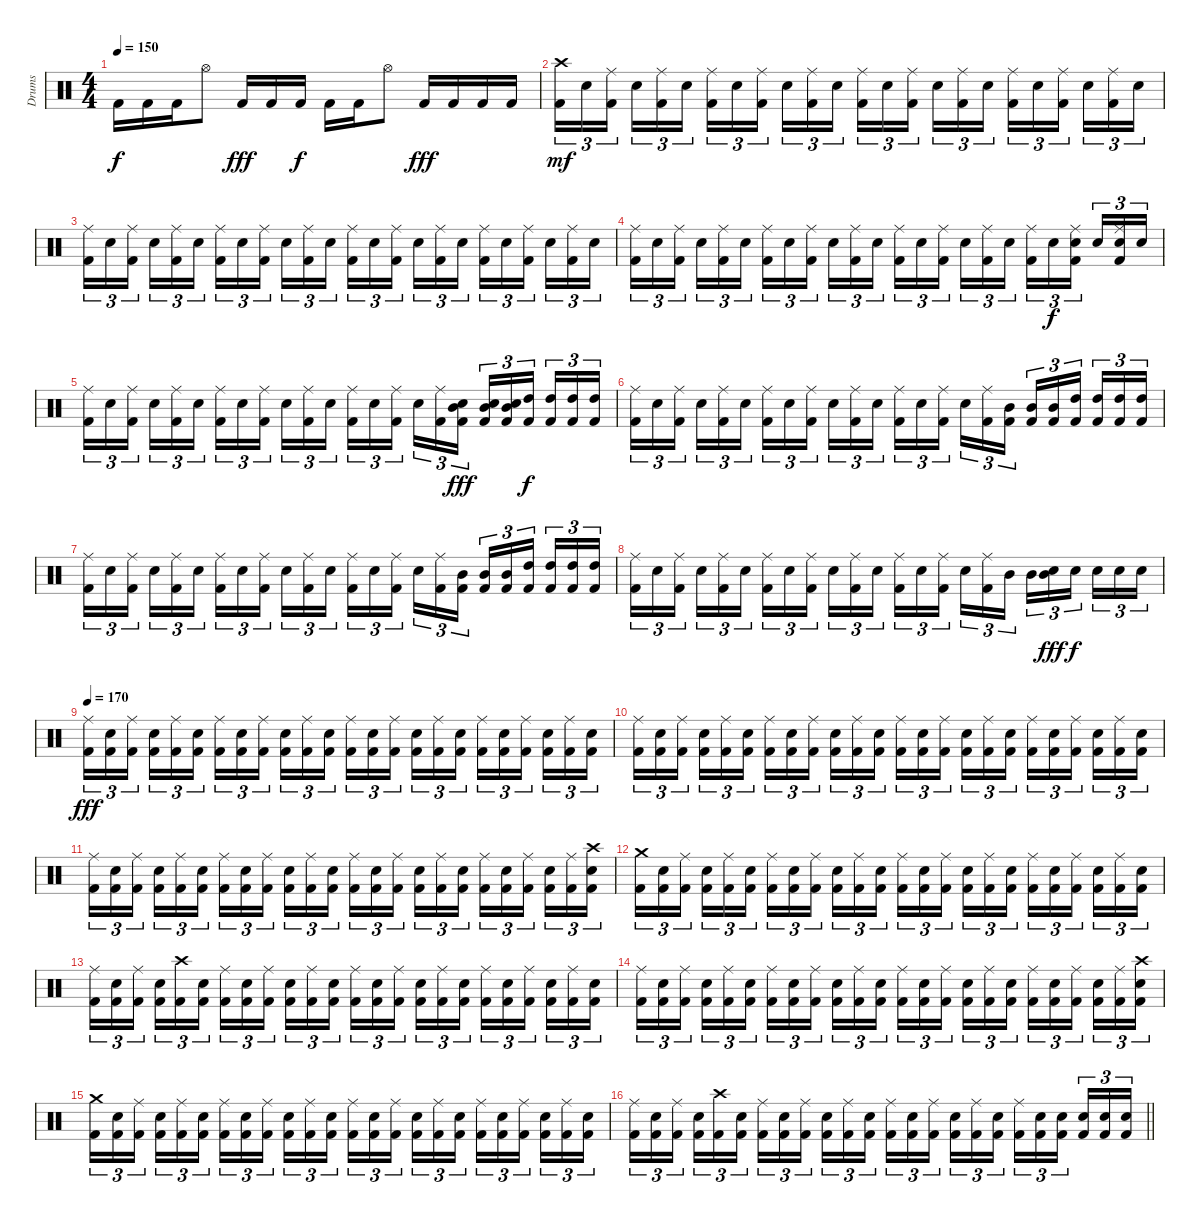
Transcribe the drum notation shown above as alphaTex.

\track ("Drums" "Drums") {instrument percussion}
\staff {score}
\articulation defaults
\ts (4 4)
\tempo 150
\clef neutral
\ks c "Kick (hit) 2".16{dy f} "Kick (hit) 2".16 "Kick (hit) 2".16 "Hi-Hat (open)".8 "Kick (hit) 2".16{dy fff} "Kick (hit) 2".16 "Kick (hit) 2".16{dy f} "Kick (hit) 2".16 "Kick (hit) 2".16 "Hi-Hat (open)".8 "Kick (hit) 2".16{dy fff} "Kick (hit) 2".16 "Kick (hit) 2".16 "Kick (hit) 2".16
|
("Crash high (hit)" "Kick (hit) 2").16{tu (3 2) dy mf} "Snare (hit) 2".16{tu (3 2)} ("Ride (middle)" "Kick (hit) 2").16{tu (3 2) beam splitsecondary} "Snare (hit) 2".16{tu (3 2)} ("Ride (middle)" "Kick (hit) 2").16{tu (3 2)} "Snare (hit) 2".16{tu (3 2)} ("Ride (middle)" "Kick (hit) 2").16{tu (3 2)} "Snare (hit) 2".16{tu (3 2)} ("Ride (middle)" "Kick (hit) 2").16{tu (3 2) beam splitsecondary} "Snare (hit) 2".16{tu (3 2)} ("Ride (middle)" "Kick (hit) 2").16{tu (3 2)} "Snare (hit) 2".16{tu (3 2)} ("Ride (middle)" "Kick (hit) 2").16{tu (3 2)} "Snare (hit) 2".16{tu (3 2)} ("Ride (middle)" "Kick (hit) 2").16{tu (3 2) beam splitsecondary} "Snare (hit) 2".16{tu (3 2)} ("Ride (middle)" "Kick (hit) 2").16{tu (3 2)} "Snare (hit) 2".16{tu (3 2)} ("Ride (middle)" "Kick (hit) 2").16{tu (3 2)} "Snare (hit) 2".16{tu (3 2)} ("Ride (middle)" "Kick (hit) 2").16{tu (3 2) beam splitsecondary} "Snare (hit) 2".16{tu (3 2)} ("Ride (middle)" "Kick (hit) 2").16{tu (3 2)} "Snare (hit) 2".16{tu (3 2)} |
("Ride (middle)" "Kick (hit) 2").16{tu (3 2)} "Snare (hit) 2".16{tu (3 2)} ("Ride (middle)" "Kick (hit) 2").16{tu (3 2) beam splitsecondary} "Snare (hit) 2".16{tu (3 2)} ("Ride (middle)" "Kick (hit) 2").16{tu (3 2)} "Snare (hit) 2".16{tu (3 2)} ("Ride (middle)" "Kick (hit) 2").16{tu (3 2)} "Snare (hit) 2".16{tu (3 2)} ("Ride (middle)" "Kick (hit) 2").16{tu (3 2) beam splitsecondary} "Snare (hit) 2".16{tu (3 2)} ("Ride (middle)" "Kick (hit) 2").16{tu (3 2)} "Snare (hit) 2".16{tu (3 2)} ("Ride (middle)" "Kick (hit) 2").16{tu (3 2)} "Snare (hit) 2".16{tu (3 2)} ("Ride (middle)" "Kick (hit) 2").16{tu (3 2) beam splitsecondary} "Snare (hit) 2".16{tu (3 2)} ("Ride (middle)" "Kick (hit) 2").16{tu (3 2)} "Snare (hit) 2".16{tu (3 2)} ("Ride (middle)" "Kick (hit) 2").16{tu (3 2)} "Snare (hit) 2".16{tu (3 2)} ("Ride (middle)" "Kick (hit) 2").16{tu (3 2) beam splitsecondary} "Snare (hit) 2".16{tu (3 2)} ("Ride (middle)" "Kick (hit) 2").16{tu (3 2)} "Snare (hit) 2".16{tu (3 2)} |
("Ride (middle)" "Kick (hit) 2").16{tu (3 2)} "Snare (hit) 2".16{tu (3 2)} ("Ride (middle)" "Kick (hit) 2").16{tu (3 2) beam splitsecondary} "Snare (hit) 2".16{tu (3 2)} ("Ride (middle)" "Kick (hit) 2").16{tu (3 2)} "Snare (hit) 2".16{tu (3 2)} ("Ride (middle)" "Kick (hit) 2").16{tu (3 2)} "Snare (hit) 2".16{tu (3 2)} ("Ride (middle)" "Kick (hit) 2").16{tu (3 2) beam splitsecondary} "Snare (hit) 2".16{tu (3 2)} ("Ride (middle)" "Kick (hit) 2").16{tu (3 2)} "Snare (hit) 2".16{tu (3 2)} ("Ride (middle)" "Kick (hit) 2").16{tu (3 2)} "Snare (hit) 2".16{tu (3 2)} ("Ride (middle)" "Kick (hit) 2").16{tu (3 2) beam splitsecondary} "Snare (hit) 2".16{tu (3 2)} ("Ride (middle)" "Kick (hit) 2").16{tu (3 2)} "Snare (hit) 2".16{tu (3 2)} ("Ride (middle)" "Kick (hit) 2").16{tu (3 2)} "Electric Snare (hit)".16{tu (3 2) dy f} ("Ride (middle)" "Electric Snare (hit)" "Kick (hit) 2").16{tu (3 2) beam splitsecondary} "Electric Snare (hit)".16{tu (3 2)} ("Ride (middle)" "Electric Snare (hit)" "Kick (hit) 2").16{tu (3 2)} "Electric Snare (hit)".16{tu (3 2)} |
("Ride (middle)" "Kick (hit) 2").16{tu (3 2)} "Electric Snare (hit)".16{tu (3 2)} ("Ride (middle)" "Kick (hit) 2").16{tu (3 2) beam splitsecondary} "Electric Snare (hit)".16{tu (3 2)} ("Ride (middle)" "Kick (hit) 2").16{tu (3 2)} "Electric Snare (hit)".16{tu (3 2)} ("Ride (middle)" "Kick (hit) 2").16{tu (3 2)} "Electric Snare (hit)".16{tu (3 2)} ("Ride (middle)" "Kick (hit) 2").16{tu (3 2) beam splitsecondary} "Electric Snare (hit)".16{tu (3 2)} ("Ride (middle)" "Kick (hit) 2").16{tu (3 2)} "Electric Snare (hit)".16{tu (3 2)} ("Ride (middle)" "Kick (hit) 2").16{tu (3 2)} "Electric Snare (hit)".16{tu (3 2)} ("Ride (middle)" "Kick (hit) 2").16{tu (3 2) beam splitsecondary} "Electric Snare (hit)".16{tu (3 2)} ("Ride (middle)" "Kick (hit) 2").16{tu (3 2)} ("Mid Tom (hit)" "Electric Snare (hit)" "Kick (hit) 2").16{tu (3 2) dy fff} ("Mid Tom (hit)" "Electric Snare (hit)" "Kick (hit) 2").16{tu (3 2)} ("Mid Tom (hit)" "Electric Snare (hit)" "Kick (hit) 2").16{tu (3 2)} ("High Tom (hit)" "Kick (hit) 2").16{tu (3 2) dy f beam splitsecondary} ("High Tom (hit)" "Kick (hit) 2").16{tu (3 2)} ("High Tom (hit)" "Kick (hit) 2").16{tu (3 2)} ("High Tom (hit)" "Kick (hit) 2").16{tu (3 2)} |
("Ride (middle)" "Kick (hit) 2").16{tu (3 2)} "Electric Snare (hit)".16{tu (3 2)} ("Ride (middle)" "Kick (hit) 2").16{tu (3 2) beam splitsecondary} "Electric Snare (hit)".16{tu (3 2)} ("Ride (middle)" "Kick (hit) 2").16{tu (3 2)} "Electric Snare (hit)".16{tu (3 2)} ("Ride (middle)" "Kick (hit) 2").16{tu (3 2)} "Electric Snare (hit)".16{tu (3 2)} ("Ride (middle)" "Kick (hit) 2").16{tu (3 2) beam splitsecondary} "Electric Snare (hit)".16{tu (3 2)} ("Ride (middle)" "Kick (hit) 2").16{tu (3 2)} "Electric Snare (hit)".16{tu (3 2)} ("Ride (middle)" "Kick (hit) 2").16{tu (3 2)} "Electric Snare (hit)".16{tu (3 2)} ("Ride (middle)" "Kick (hit) 2").16{tu (3 2) beam splitsecondary} "Electric Snare (hit)".16{tu (3 2)} ("Ride (middle)" "Kick (hit) 2").16{tu (3 2)} ("Mid Tom (hit)" "Kick (hit) 2").16{tu (3 2)} ("Mid Tom (hit)" "Kick (hit) 2").16{tu (3 2)} ("Mid Tom (hit)" "Kick (hit) 2").16{tu (3 2)} ("High Tom (hit)" "Kick (hit) 2").16{tu (3 2) beam splitsecondary} ("High Tom (hit)" "Kick (hit) 2").16{tu (3 2)} ("High Tom (hit)" "Kick (hit) 2").16{tu (3 2)} ("High Tom (hit)" "Kick (hit) 2").16{tu (3 2)} |
("Ride (middle)" "Kick (hit) 2").16{tu (3 2)} "Electric Snare (hit)".16{tu (3 2)} ("Ride (middle)" "Kick (hit) 2").16{tu (3 2) beam splitsecondary} "Electric Snare (hit)".16{tu (3 2)} ("Ride (middle)" "Kick (hit) 2").16{tu (3 2)} "Electric Snare (hit)".16{tu (3 2)} ("Ride (middle)" "Kick (hit) 2").16{tu (3 2)} "Electric Snare (hit)".16{tu (3 2)} ("Ride (middle)" "Kick (hit) 2").16{tu (3 2) beam splitsecondary} "Electric Snare (hit)".16{tu (3 2)} ("Ride (middle)" "Kick (hit) 2").16{tu (3 2)} "Electric Snare (hit)".16{tu (3 2)} ("Ride (middle)" "Kick (hit) 2").16{tu (3 2)} "Electric Snare (hit)".16{tu (3 2)} ("Ride (middle)" "Kick (hit) 2").16{tu (3 2) beam splitsecondary} "Electric Snare (hit)".16{tu (3 2)} ("Ride (middle)" "Kick (hit) 2").16{tu (3 2)} ("Mid Tom (hit)" "Kick (hit) 2").16{tu (3 2)} ("Mid Tom (hit)" "Kick (hit) 2").16{tu (3 2)} ("Mid Tom (hit)" "Kick (hit) 2").16{tu (3 2)} ("High Tom (hit)" "Kick (hit) 2").16{tu (3 2) beam splitsecondary} ("High Tom (hit)" "Kick (hit) 2").16{tu (3 2)} ("High Tom (hit)" "Kick (hit) 2").16{tu (3 2)} ("High Tom (hit)" "Kick (hit) 2").16{tu (3 2)} |
("Ride (middle)" "Kick (hit) 2").16{tu (3 2)} "Electric Snare (hit)".16{tu (3 2)} ("Ride (middle)" "Kick (hit) 2").16{tu (3 2) beam splitsecondary} "Electric Snare (hit)".16{tu (3 2)} ("Ride (middle)" "Kick (hit) 2").16{tu (3 2)} "Electric Snare (hit)".16{tu (3 2)} ("Ride (middle)" "Kick (hit) 2").16{tu (3 2)} "Electric Snare (hit)".16{tu (3 2)} ("Ride (middle)" "Kick (hit) 2").16{tu (3 2) beam splitsecondary} "Electric Snare (hit)".16{tu (3 2)} ("Ride (middle)" "Kick (hit) 2").16{tu (3 2)} "Electric Snare (hit)".16{tu (3 2)} ("Ride (middle)" "Kick (hit) 2").16{tu (3 2)} "Electric Snare (hit)".16{tu (3 2)} ("Ride (middle)" "Kick (hit) 2").16{tu (3 2) beam splitsecondary} "Electric Snare (hit)".16{tu (3 2)} ("Ride (middle)" "Kick (hit) 2").16{tu (3 2)} "Mid Tom (hit)".16{tu (3 2)} "Mid Tom (hit)".16{tu (3 2)} ("Mid Tom (hit)" "Snare (hit) 2").16{tu (3 2) dy fff} "Snare (hit) 2".16{tu (3 2) dy f beam splitsecondary} "Snare (hit) 2".16{tu (3 2)} "Snare (hit) 2".16{tu (3 2)} "Snare (hit) 2".16{tu (3 2)} |
\tempo 170
("Ride (middle)" "Kick (hit) 2").16{tu (3 2) dy fff} ("Snare (hit) 2" "Kick (hit) 2").16{tu (3 2)} ("Ride (middle)" "Kick (hit) 2").16{tu (3 2) beam splitsecondary} ("Snare (hit) 2" "Kick (hit) 2").16{tu (3 2)} ("Ride (middle)" "Kick (hit) 2").16{tu (3 2)} ("Snare (hit) 2" "Kick (hit) 2").16{tu (3 2)} ("Ride (middle)" "Kick (hit) 2").16{tu (3 2)} ("Snare (hit) 2" "Kick (hit) 2").16{tu (3 2)} ("Ride (middle)" "Kick (hit) 2").16{tu (3 2) beam splitsecondary} ("Snare (hit) 2" "Kick (hit) 2").16{tu (3 2)} ("Ride (middle)" "Kick (hit) 2").16{tu (3 2)} ("Snare (hit) 2" "Kick (hit) 2").16{tu (3 2)} ("Ride (middle)" "Kick (hit) 2").16{tu (3 2)} ("Snare (hit) 2" "Kick (hit) 2").16{tu (3 2)} ("Ride (middle)" "Kick (hit) 2").16{tu (3 2) beam splitsecondary} ("Snare (hit) 2" "Kick (hit) 2").16{tu (3 2)} ("Ride (middle)" "Kick (hit) 2").16{tu (3 2)} ("Snare (hit) 2" "Kick (hit) 2").16{tu (3 2)} ("Ride (middle)" "Kick (hit) 2").16{tu (3 2)} ("Snare (hit) 2" "Kick (hit) 2").16{tu (3 2)} ("Ride (middle)" "Kick (hit) 2").16{tu (3 2) beam splitsecondary} ("Snare (hit) 2" "Kick (hit) 2").16{tu (3 2)} ("Ride (middle)" "Kick (hit) 2").16{tu (3 2)} ("Snare (hit) 2" "Kick (hit) 2").16{tu (3 2)} |
("Ride (middle)" "Kick (hit) 2").16{tu (3 2)} ("Snare (hit) 2" "Kick (hit) 2").16{tu (3 2)} ("Ride (middle)" "Kick (hit) 2").16{tu (3 2) beam splitsecondary} ("Snare (hit) 2" "Kick (hit) 2").16{tu (3 2)} ("Ride (middle)" "Kick (hit) 2").16{tu (3 2)} ("Snare (hit) 2" "Kick (hit) 2").16{tu (3 2)} ("Ride (middle)" "Kick (hit) 2").16{tu (3 2)} ("Snare (hit) 2" "Kick (hit) 2").16{tu (3 2)} ("Ride (middle)" "Kick (hit) 2").16{tu (3 2) beam splitsecondary} ("Snare (hit) 2" "Kick (hit) 2").16{tu (3 2)} ("Ride (middle)" "Kick (hit) 2").16{tu (3 2)} ("Snare (hit) 2" "Kick (hit) 2").16{tu (3 2)} ("Ride (middle)" "Kick (hit) 2").16{tu (3 2)} ("Snare (hit) 2" "Kick (hit) 2").16{tu (3 2)} ("Ride (middle)" "Kick (hit) 2").16{tu (3 2) beam splitsecondary} ("Snare (hit) 2" "Kick (hit) 2").16{tu (3 2)} ("Ride (middle)" "Kick (hit) 2").16{tu (3 2)} ("Snare (hit) 2" "Kick (hit) 2").16{tu (3 2)} ("Ride (middle)" "Kick (hit) 2").16{tu (3 2)} ("Snare (hit) 2" "Kick (hit) 2").16{tu (3 2)} ("Ride (middle)" "Kick (hit) 2").16{tu (3 2) beam splitsecondary} ("Snare (hit) 2" "Kick (hit) 2").16{tu (3 2)} ("Ride (middle)" "Kick (hit) 2").16{tu (3 2)} ("Snare (hit) 2" "Kick (hit) 2").16{tu (3 2)} |
("Ride (middle)" "Kick (hit) 2").16{tu (3 2)} ("Snare (hit) 2" "Kick (hit) 2").16{tu (3 2)} ("Ride (middle)" "Kick (hit) 2").16{tu (3 2) beam splitsecondary} ("Snare (hit) 2" "Kick (hit) 2").16{tu (3 2)} ("Ride (middle)" "Kick (hit) 2").16{tu (3 2)} ("Snare (hit) 2" "Kick (hit) 2").16{tu (3 2)} ("Ride (middle)" "Kick (hit) 2").16{tu (3 2)} ("Snare (hit) 2" "Kick (hit) 2").16{tu (3 2)} ("Ride (middle)" "Kick (hit) 2").16{tu (3 2) beam splitsecondary} ("Snare (hit) 2" "Kick (hit) 2").16{tu (3 2)} ("Ride (middle)" "Kick (hit) 2").16{tu (3 2)} ("Snare (hit) 2" "Kick (hit) 2").16{tu (3 2)} ("Ride (middle)" "Kick (hit) 2").16{tu (3 2)} ("Snare (hit) 2" "Kick (hit) 2").16{tu (3 2)} ("Ride (middle)" "Kick (hit) 2").16{tu (3 2) beam splitsecondary} ("Snare (hit) 2" "Kick (hit) 2").16{tu (3 2)} ("Ride (middle)" "Kick (hit) 2").16{tu (3 2)} ("Snare (hit) 2" "Kick (hit) 2").16{tu (3 2)} ("Ride (middle)" "Kick (hit) 2").16{tu (3 2)} ("Snare (hit) 2" "Kick (hit) 2").16{tu (3 2)} ("Ride (middle)" "Kick (hit) 2").16{tu (3 2) beam splitsecondary} ("Snare (hit) 2" "Kick (hit) 2").16{tu (3 2)} ("Ride (middle)" "Kick (hit) 2").16{tu (3 2)} ("Crash high (hit)" "Snare (hit) 2" "Kick (hit) 2").16{tu (3 2)} |
("Crash medium (hit)" "Kick (hit) 2").16{tu (3 2)} ("Snare (hit) 2" "Kick (hit) 2").16{tu (3 2)} ("Ride (middle)" "Kick (hit) 2").16{tu (3 2) beam splitsecondary} ("Snare (hit) 2" "Kick (hit) 2").16{tu (3 2)} ("Ride (middle)" "Kick (hit) 2").16{tu (3 2)} ("Snare (hit) 2" "Kick (hit) 2").16{tu (3 2)} ("Ride (middle)" "Kick (hit) 2").16{tu (3 2)} ("Snare (hit) 2" "Kick (hit) 2").16{tu (3 2)} ("Ride (middle)" "Kick (hit) 2").16{tu (3 2) beam splitsecondary} ("Snare (hit) 2" "Kick (hit) 2").16{tu (3 2)} ("Ride (middle)" "Kick (hit) 2").16{tu (3 2)} ("Snare (hit) 2" "Kick (hit) 2").16{tu (3 2)} ("Ride (middle)" "Kick (hit) 2").16{tu (3 2)} ("Snare (hit) 2" "Kick (hit) 2").16{tu (3 2)} ("Ride (middle)" "Kick (hit) 2").16{tu (3 2) beam splitsecondary} ("Snare (hit) 2" "Kick (hit) 2").16{tu (3 2)} ("Ride (middle)" "Kick (hit) 2").16{tu (3 2)} ("Snare (hit) 2" "Kick (hit) 2").16{tu (3 2)} ("Ride (middle)" "Kick (hit) 2").16{tu (3 2)} ("Snare (hit) 2" "Kick (hit) 2").16{tu (3 2)} ("Ride (middle)" "Kick (hit) 2").16{tu (3 2) beam splitsecondary} ("Snare (hit) 2" "Kick (hit) 2").16{tu (3 2)} ("Ride (middle)" "Kick (hit) 2").16{tu (3 2)} ("Snare (hit) 2" "Kick (hit) 2").16{tu (3 2)} |
("Ride (middle)" "Kick (hit) 2").16{tu (3 2)} ("Snare (hit) 2" "Kick (hit) 2").16{tu (3 2)} ("Ride (middle)" "Kick (hit) 2").16{tu (3 2) beam splitsecondary} ("Snare (hit) 2" "Kick (hit) 2").16{tu (3 2)} ("Crash high (hit)" "Kick (hit) 2").16{tu (3 2)} ("Snare (hit) 2" "Kick (hit) 2").16{tu (3 2)} ("Ride (middle)" "Kick (hit) 2").16{tu (3 2)} ("Snare (hit) 2" "Kick (hit) 2").16{tu (3 2)} ("Ride (middle)" "Kick (hit) 2").16{tu (3 2) beam splitsecondary} ("Snare (hit) 2" "Kick (hit) 2").16{tu (3 2)} ("Ride (middle)" "Kick (hit) 2").16{tu (3 2)} ("Snare (hit) 2" "Kick (hit) 2").16{tu (3 2)} ("Ride (middle)" "Kick (hit) 2").16{tu (3 2)} ("Snare (hit) 2" "Kick (hit) 2").16{tu (3 2)} ("Ride (middle)" "Kick (hit) 2").16{tu (3 2) beam splitsecondary} ("Snare (hit) 2" "Kick (hit) 2").16{tu (3 2)} ("Ride (middle)" "Kick (hit) 2").16{tu (3 2)} ("Snare (hit) 2" "Kick (hit) 2").16{tu (3 2)} ("Ride (middle)" "Kick (hit) 2").16{tu (3 2)} ("Snare (hit) 2" "Kick (hit) 2").16{tu (3 2)} ("Ride (middle)" "Kick (hit) 2").16{tu (3 2) beam splitsecondary} ("Snare (hit) 2" "Kick (hit) 2").16{tu (3 2)} ("Ride (middle)" "Kick (hit) 2").16{tu (3 2)} ("Snare (hit) 2" "Kick (hit) 2").16{tu (3 2)} |
("Ride (middle)" "Kick (hit) 2").16{tu (3 2)} ("Snare (hit) 2" "Kick (hit) 2").16{tu (3 2)} ("Ride (middle)" "Kick (hit) 2").16{tu (3 2) beam splitsecondary} ("Snare (hit) 2" "Kick (hit) 2").16{tu (3 2)} ("Ride (middle)" "Kick (hit) 2").16{tu (3 2)} ("Snare (hit) 2" "Kick (hit) 2").16{tu (3 2)} ("Ride (middle)" "Kick (hit) 2").16{tu (3 2)} ("Snare (hit) 2" "Kick (hit) 2").16{tu (3 2)} ("Ride (middle)" "Kick (hit) 2").16{tu (3 2) beam splitsecondary} ("Snare (hit) 2" "Kick (hit) 2").16{tu (3 2)} ("Ride (middle)" "Kick (hit) 2").16{tu (3 2)} ("Snare (hit) 2" "Kick (hit) 2").16{tu (3 2)} ("Ride (middle)" "Kick (hit) 2").16{tu (3 2)} ("Snare (hit) 2" "Kick (hit) 2").16{tu (3 2)} ("Ride (middle)" "Kick (hit) 2").16{tu (3 2) beam splitsecondary} ("Snare (hit) 2" "Kick (hit) 2").16{tu (3 2)} ("Ride (middle)" "Kick (hit) 2").16{tu (3 2)} ("Snare (hit) 2" "Kick (hit) 2").16{tu (3 2)} ("Ride (middle)" "Kick (hit) 2").16{tu (3 2)} ("Snare (hit) 2" "Kick (hit) 2").16{tu (3 2)} ("Ride (middle)" "Kick (hit) 2").16{tu (3 2) beam splitsecondary} ("Snare (hit) 2" "Kick (hit) 2").16{tu (3 2)} ("Ride (middle)" "Kick (hit) 2").16{tu (3 2)} ("Crash high (hit)" "Snare (hit) 2" "Kick (hit) 2").16{tu (3 2)} |
("Crash medium (hit)" "Kick (hit) 2").16{tu (3 2)} ("Snare (hit) 2" "Kick (hit) 2").16{tu (3 2)} ("Ride (middle)" "Kick (hit) 2").16{tu (3 2) beam splitsecondary} ("Snare (hit) 2" "Kick (hit) 2").16{tu (3 2)} ("Ride (middle)" "Kick (hit) 2").16{tu (3 2)} ("Snare (hit) 2" "Kick (hit) 2").16{tu (3 2)} ("Ride (middle)" "Kick (hit) 2").16{tu (3 2)} ("Snare (hit) 2" "Kick (hit) 2").16{tu (3 2)} ("Ride (middle)" "Kick (hit) 2").16{tu (3 2) beam splitsecondary} ("Snare (hit) 2" "Kick (hit) 2").16{tu (3 2)} ("Ride (middle)" "Kick (hit) 2").16{tu (3 2)} ("Snare (hit) 2" "Kick (hit) 2").16{tu (3 2)} ("Ride (middle)" "Kick (hit) 2").16{tu (3 2)} ("Snare (hit) 2" "Kick (hit) 2").16{tu (3 2)} ("Ride (middle)" "Kick (hit) 2").16{tu (3 2) beam splitsecondary} ("Snare (hit) 2" "Kick (hit) 2").16{tu (3 2)} ("Ride (middle)" "Kick (hit) 2").16{tu (3 2)} ("Snare (hit) 2" "Kick (hit) 2").16{tu (3 2)} ("Ride (middle)" "Kick (hit) 2").16{tu (3 2)} ("Snare (hit) 2" "Kick (hit) 2").16{tu (3 2)} ("Ride (middle)" "Kick (hit) 2").16{tu (3 2) beam splitsecondary} ("Snare (hit) 2" "Kick (hit) 2").16{tu (3 2)} ("Ride (middle)" "Kick (hit) 2").16{tu (3 2)} ("Snare (hit) 2" "Kick (hit) 2").16{tu (3 2)} |
\barLineRight lightlight
("Ride (middle)" "Kick (hit) 2").16{tu (3 2)} ("Snare (hit) 2" "Kick (hit) 2").16{tu (3 2)} ("Ride (middle)" "Kick (hit) 2").16{tu (3 2) beam splitsecondary} ("Snare (hit) 2" "Kick (hit) 2").16{tu (3 2)} ("Crash high (hit)" "Kick (hit) 2").16{tu (3 2)} ("Snare (hit) 2" "Kick (hit) 2").16{tu (3 2)} ("Ride (middle)" "Kick (hit) 2").16{tu (3 2)} ("Snare (hit) 2" "Kick (hit) 2").16{tu (3 2)} ("Ride (middle)" "Kick (hit) 2").16{tu (3 2) beam splitsecondary} ("Snare (hit) 2" "Kick (hit) 2").16{tu (3 2)} ("Ride (middle)" "Kick (hit) 2").16{tu (3 2)} ("Snare (hit) 2" "Kick (hit) 2").16{tu (3 2)} ("Ride (middle)" "Kick (hit) 2").16{tu (3 2)} ("Snare (hit) 2" "Kick (hit) 2").16{tu (3 2)} ("Ride (middle)" "Kick (hit) 2").16{tu (3 2) beam splitsecondary} ("Snare (hit) 2" "Kick (hit) 2").16{tu (3 2)} ("Ride (middle)" "Kick (hit) 2").16{tu (3 2)} ("Snare (hit) 2" "Kick (hit) 2").16{tu (3 2)} ("Ride (middle)" "Kick (hit) 2").16{tu (3 2)} ("Electric Snare (hit)" "Kick (hit) 2").16{tu (3 2)} ("Electric Snare (hit)" "Kick (hit) 2").16{tu (3 2) beam splitsecondary} ("Snare (hit) 2" "Kick (hit) 2").16{tu (3 2)} ("Snare (hit) 2" "Kick (hit) 2").16{tu (3 2)} ("Snare (hit) 2" "Kick (hit) 2").16{tu (3 2)}
